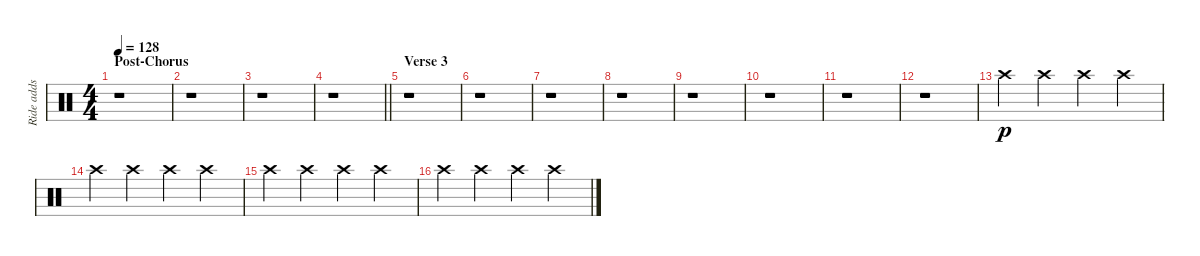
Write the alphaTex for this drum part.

\track ("Ride adds" "Ride adds") {instrument percussion}
\staff {score}
\articulation defaults
\ts (4 4)
\section ("" "Post-Chorus")
\tempo 128
\clef neutral
\ks c
r.1{dy p} |
r.1 |
r.1 |
\barLineRight lightlight
r.1 |
\section ("" "Verse 3")
r.1 |
r.1 |
r.1 |
r.1 |
r.1 |
r.1 |
r.1 |
r.1 |
"Crash high (hit)".4 "Crash high (hit)".4 "Crash high (hit)".4 "Crash high (hit)".4 |
"Crash high (hit)".4 "Crash high (hit)".4 "Crash high (hit)".4 "Crash high (hit)".4 |
"Crash high (hit)".4 "Crash high (hit)".4 "Crash high (hit)".4 "Crash high (hit)".4 |
"Crash high (hit)".4 "Crash high (hit)".4 "Crash high (hit)".4 "Crash high (hit)".4
